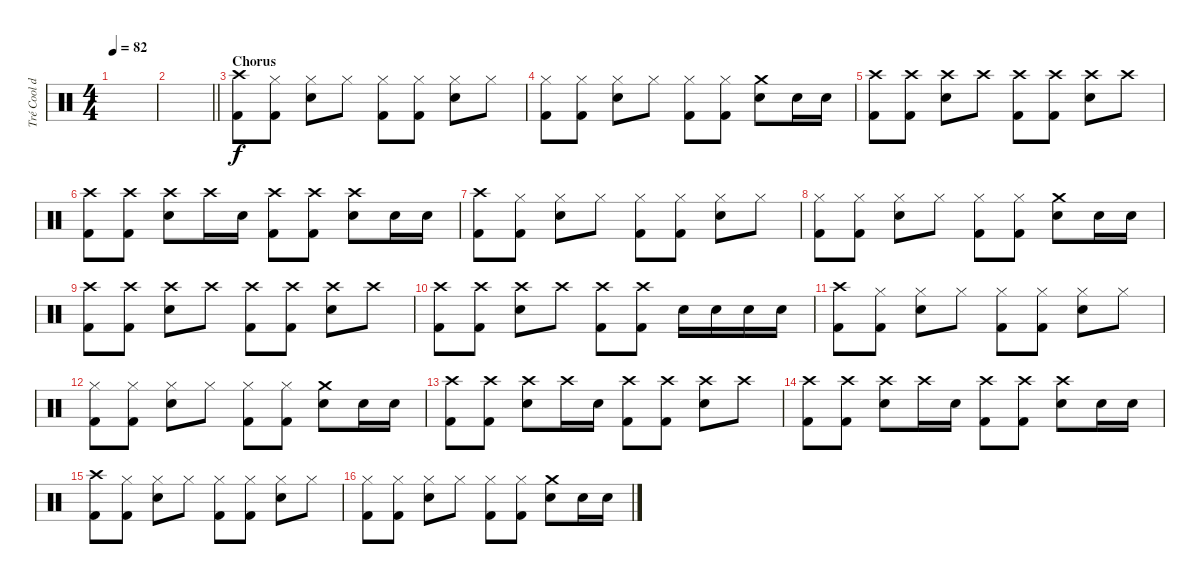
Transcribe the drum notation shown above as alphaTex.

\track ("Tré Cool drums" "Tré Cool d") {instrument percussion}
\staff {score}
\articulation defaults
\ts (4 4)
\tempo 82
\clef neutral
\ks c
|
\barLineRight lightlight
|
\section ("" "Chorus")
("Crash high (hit)" "Kick (hit) 2").8 ("Hi-Hat (closed)" "Kick (hit) 2").8 ("Hi-Hat (closed)" "Snare (hit) 2").8 "Hi-Hat (closed)".8 ("Hi-Hat (closed)" "Kick (hit) 2").8 ("Hi-Hat (closed)" "Kick (hit) 2").8 ("Hi-Hat (closed)" "Snare (hit) 2").8 "Hi-Hat (closed)".8 |
("Hi-Hat (closed)" "Kick (hit) 2").8 ("Hi-Hat (closed)" "Kick (hit) 2").8 ("Hi-Hat (closed)" "Snare (hit) 2").8 "Hi-Hat (closed)".8 ("Hi-Hat (closed)" "Kick (hit) 2").8 ("Hi-Hat (closed)" "Kick (hit) 2").8 ("Crash medium (hit)" "Snare (hit) 2").8 "Snare (hit) 2".16 "Snare (hit) 2".16 |
("Crash high (hit)" "Kick (hit) 2").8 ("Crash high (hit)" "Kick (hit) 2").8 ("Crash high (hit)" "Snare (hit) 2").8 "Crash high (hit)".8 ("Crash high (hit)" "Kick (hit) 2").8 ("Crash high (hit)" "Kick (hit) 2").8 ("Crash high (hit)" "Snare (hit) 2").8 "Crash high (hit)".8 |
("Crash high (hit)" "Kick (hit) 2").8 ("Crash high (hit)" "Kick (hit) 2").8 ("Crash high (hit)" "Snare (hit) 2").8 "Crash high (hit)".16 "Snare (hit) 2".16 ("Crash high (hit)" "Kick (hit) 2").8 ("Crash high (hit)" "Kick (hit) 2").8 ("Crash high (hit)" "Snare (hit) 2").8 "Snare (hit) 2".16 "Snare (hit) 2".16 |
("Crash high (hit)" "Kick (hit) 2").8 ("Hi-Hat (closed)" "Kick (hit) 2").8 ("Hi-Hat (closed)" "Snare (hit) 2").8 "Hi-Hat (closed)".8 ("Hi-Hat (closed)" "Kick (hit) 2").8 ("Hi-Hat (closed)" "Kick (hit) 2").8 ("Hi-Hat (closed)" "Snare (hit) 2").8 "Hi-Hat (closed)".8 |
("Hi-Hat (closed)" "Kick (hit) 2").8 ("Hi-Hat (closed)" "Kick (hit) 2").8 ("Hi-Hat (closed)" "Snare (hit) 2").8 "Hi-Hat (closed)".8 ("Hi-Hat (closed)" "Kick (hit) 2").8 ("Hi-Hat (closed)" "Kick (hit) 2").8 ("Crash medium (hit)" "Snare (hit) 2").8 "Snare (hit) 2".16 "Snare (hit) 2".16 |
("Crash high (hit)" "Kick (hit) 2").8 ("Crash high (hit)" "Kick (hit) 2").8 ("Crash high (hit)" "Snare (hit) 2").8 "Crash high (hit)".8 ("Crash high (hit)" "Kick (hit) 2").8 ("Crash high (hit)" "Kick (hit) 2").8 ("Crash high (hit)" "Snare (hit) 2").8 "Crash high (hit)".8 |
("Crash high (hit)" "Kick (hit) 2").8 ("Crash high (hit)" "Kick (hit) 2").8 ("Crash high (hit)" "Snare (hit) 2").8 "Crash high (hit)".8 ("Crash high (hit)" "Kick (hit) 2").8 ("Crash high (hit)" "Kick (hit) 2").8 "Snare (hit) 2".16 "Snare (hit) 2".16 "Snare (hit) 2".16 "Snare (hit) 2".16 |
("Crash high (hit)" "Kick (hit) 2").8 ("Hi-Hat (closed)" "Kick (hit) 2").8 ("Hi-Hat (closed)" "Snare (hit) 2").8 "Hi-Hat (closed)".8 ("Hi-Hat (closed)" "Kick (hit) 2").8 ("Hi-Hat (closed)" "Kick (hit) 2").8 ("Hi-Hat (closed)" "Snare (hit) 2").8 "Hi-Hat (closed)".8 |
("Hi-Hat (closed)" "Kick (hit) 2").8 ("Hi-Hat (closed)" "Kick (hit) 2").8 ("Hi-Hat (closed)" "Snare (hit) 2").8 "Hi-Hat (closed)".8 ("Hi-Hat (closed)" "Kick (hit) 2").8 ("Hi-Hat (closed)" "Kick (hit) 2").8 ("Crash medium (hit)" "Snare (hit) 2").8 "Snare (hit) 2".16 "Snare (hit) 2".16 |
("Crash high (hit)" "Kick (hit) 2").8 ("Crash high (hit)" "Kick (hit) 2").8 ("Crash high (hit)" "Snare (hit) 2").8 "Crash high (hit)".16 "Snare (hit) 2".16 ("Crash high (hit)" "Kick (hit) 2").8 ("Crash high (hit)" "Kick (hit) 2").8 ("Crash high (hit)" "Snare (hit) 2").8 "Crash high (hit)".8 |
("Crash high (hit)" "Kick (hit) 2").8 ("Crash high (hit)" "Kick (hit) 2").8 ("Crash high (hit)" "Snare (hit) 2").8 "Crash high (hit)".16 "Snare (hit) 2".16 ("Crash high (hit)" "Kick (hit) 2").8 ("Crash high (hit)" "Kick (hit) 2").8 ("Crash high (hit)" "Snare (hit) 2").8 "Snare (hit) 2".16 "Snare (hit) 2".16 |
("Crash high (hit)" "Kick (hit) 2").8 ("Hi-Hat (closed)" "Kick (hit) 2").8 ("Hi-Hat (closed)" "Snare (hit) 2").8 "Hi-Hat (closed)".8 ("Hi-Hat (closed)" "Kick (hit) 2").8 ("Hi-Hat (closed)" "Kick (hit) 2").8 ("Hi-Hat (closed)" "Snare (hit) 2").8 "Hi-Hat (closed)".8 |
("Hi-Hat (closed)" "Kick (hit) 2").8 ("Hi-Hat (closed)" "Kick (hit) 2").8 ("Hi-Hat (closed)" "Snare (hit) 2").8 "Hi-Hat (closed)".8 ("Hi-Hat (closed)" "Kick (hit) 2").8 ("Hi-Hat (closed)" "Kick (hit) 2").8 ("Crash medium (hit)" "Snare (hit) 2").8 "Snare (hit) 2".16 "Snare (hit) 2".16
